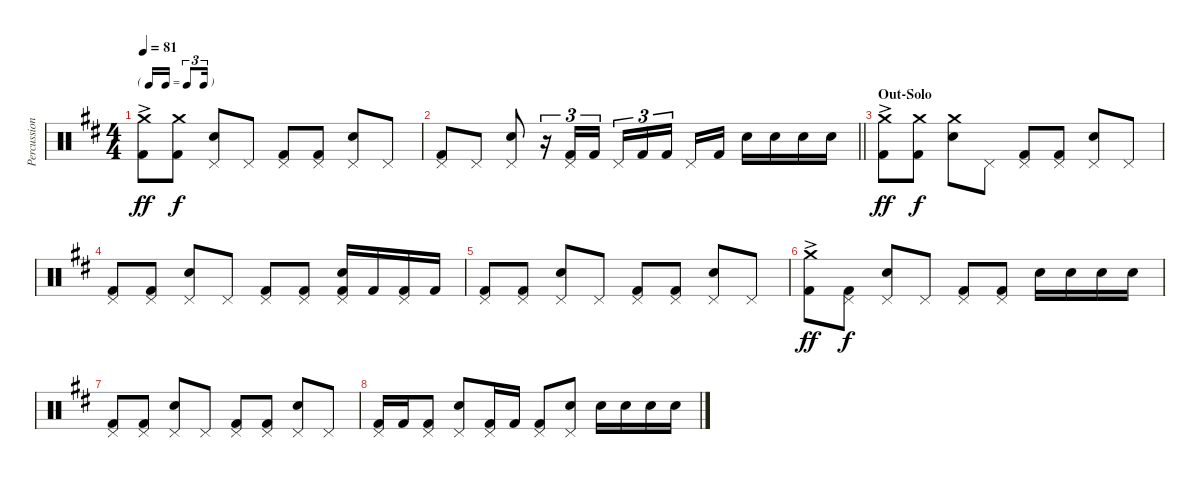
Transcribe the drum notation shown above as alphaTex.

\track ("Percussion" "Percussion") {instrument percussion}
\staff {score}
\articulation defaults
\ts (4 4)
\tf triplet16th
\tempo 81
\clef neutral
\ks d
("Crash medium (hit)"{ac} "Kick (hit) 2").8{dy ff} ("Crash medium (hit)" "Kick (hit) 2").8{dy f} ("Pedal Hi-Hat (hit)" "Snare (hit) 2").8 "Pedal Hi-Hat (hit)".8 ("Pedal Hi-Hat (hit)" "Kick (hit) 2").8 ("Pedal Hi-Hat (hit)" "Kick (hit) 2").8 ("Pedal Hi-Hat (hit)" "Snare (hit) 2").8 "Pedal Hi-Hat (hit)".8 |
\barLineRight lightlight
("Pedal Hi-Hat (hit)" "Kick (hit) 2").8 "Pedal Hi-Hat (hit)".8 ("Pedal Hi-Hat (hit)" "Snare (hit) 2").8 r.16{tu (3 2)} ("Pedal Hi-Hat (hit)" "Kick (hit) 2").16{tu (3 2)} "Kick (hit) 2".16{tu (3 2)} "Pedal Hi-Hat (hit)".16{tu (3 2)} "Kick (hit) 2".16{tu (3 2)} "Kick (hit) 2".16{tu (3 2) beam splitsecondary} "Pedal Hi-Hat (hit)".16 "Kick (hit) 2".16 "Snare (hit) 2".16 "Snare (hit) 2".16 "Snare (hit) 2".16 "Snare (hit) 2".16 |
\section ("" "Out-Solo")
("Crash medium (hit)"{ac} "Kick (hit) 2").8{dy ff} ("Crash medium (hit)" "Kick (hit) 2").8{dy f} ("Crash medium (hit)" "Snare (hit) 2").8 "Pedal Hi-Hat (hit)".8 ("Pedal Hi-Hat (hit)" "Kick (hit) 2").8 ("Pedal Hi-Hat (hit)" "Kick (hit) 2").8 ("Pedal Hi-Hat (hit)" "Snare (hit) 2").8 "Pedal Hi-Hat (hit)".8 |
("Pedal Hi-Hat (hit)" "Kick (hit) 2").8 ("Pedal Hi-Hat (hit)" "Kick (hit) 2").8 ("Pedal Hi-Hat (hit)" "Snare (hit) 2").8 "Pedal Hi-Hat (hit)".8 ("Pedal Hi-Hat (hit)" "Kick (hit) 2").8 ("Pedal Hi-Hat (hit)" "Kick (hit) 2").8 ("Pedal Hi-Hat (hit)" "Snare (hit) 2" "Kick (hit) 2").16 "Kick (hit) 2".16 ("Pedal Hi-Hat (hit)" "Kick (hit) 2").16 "Kick (hit) 2".16 |
("Pedal Hi-Hat (hit)" "Kick (hit) 2").8 ("Pedal Hi-Hat (hit)" "Kick (hit) 2").8 ("Pedal Hi-Hat (hit)" "Snare (hit) 2").8 "Pedal Hi-Hat (hit)".8 ("Pedal Hi-Hat (hit)" "Kick (hit) 2").8 ("Pedal Hi-Hat (hit)" "Kick (hit) 2").8 ("Pedal Hi-Hat (hit)" "Snare (hit) 2").8 "Pedal Hi-Hat (hit)".8 |
("Crash medium (hit)"{ac} "Kick (hit) 2").8{dy ff} ("Pedal Hi-Hat (hit)" "Kick (hit) 2").8{dy f} ("Pedal Hi-Hat (hit)" "Snare (hit) 2").8 "Pedal Hi-Hat (hit)".8 ("Pedal Hi-Hat (hit)" "Kick (hit) 2").8 ("Pedal Hi-Hat (hit)" "Kick (hit) 2").8 "Snare (hit) 2".16 "Snare (hit) 2".16 "Snare (hit) 2".16 "Snare (hit) 2".16 |
("Pedal Hi-Hat (hit)" "Kick (hit) 2").8 ("Pedal Hi-Hat (hit)" "Kick (hit) 2").8 ("Pedal Hi-Hat (hit)" "Snare (hit) 2").8 "Pedal Hi-Hat (hit)".8 ("Pedal Hi-Hat (hit)" "Kick (hit) 2").8 ("Pedal Hi-Hat (hit)" "Kick (hit) 2").8 ("Pedal Hi-Hat (hit)" "Snare (hit) 2").8 "Pedal Hi-Hat (hit)".8 |
("Pedal Hi-Hat (hit)" "Kick (hit) 2").16 "Kick (hit) 2".16 ("Pedal Hi-Hat (hit)" "Kick (hit) 2").8 ("Pedal Hi-Hat (hit)" "Snare (hit) 2").8 ("Pedal Hi-Hat (hit)" "Kick (hit) 2").16 "Kick (hit) 2".16 ("Pedal Hi-Hat (hit)" "Kick (hit) 2").8 ("Pedal Hi-Hat (hit)" "Snare (hit) 2").8 "Snare (hit) 2".16 "Snare (hit) 2".16 "Snare (hit) 2".16 "Snare (hit) 2".16
